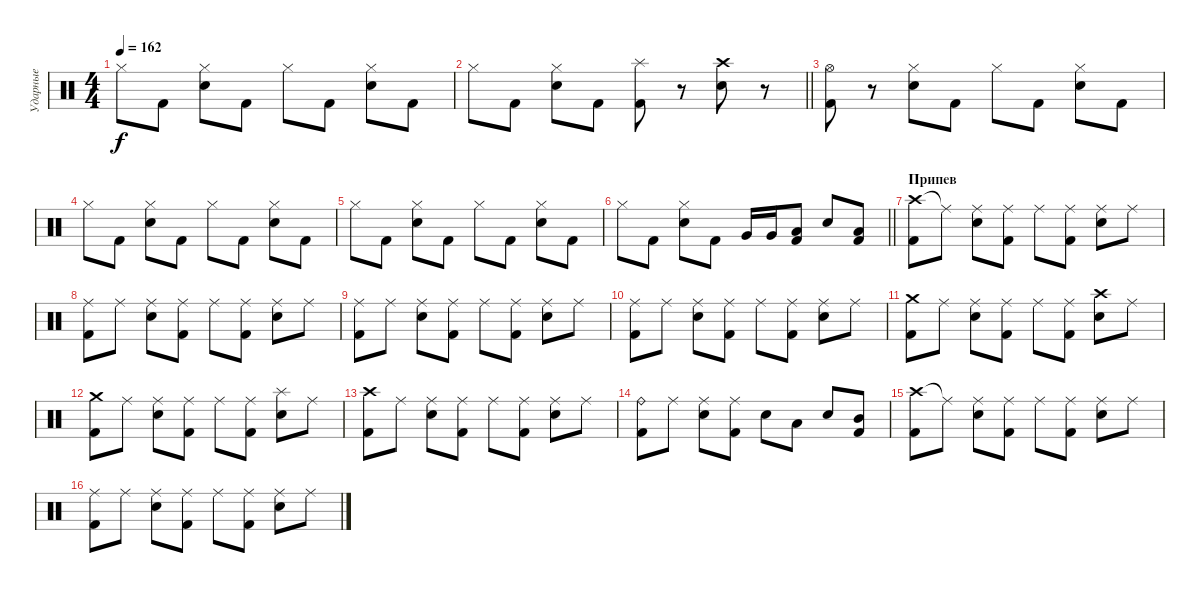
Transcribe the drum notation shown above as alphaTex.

\track ("Ударные" "Ударные") {instrument percussion}
\staff {score}
\articulation defaults
\ts (4 4)
\tempo 162
\clef neutral
\ks c "Hi-Hat (closed)".8{dy f} "Kick (hit) 2".8
("Hi-Hat (closed)" "Snare (hit) 2").8 "Kick (hit) 2".8 "Hi-Hat (closed)".8 "Kick (hit) 2".8 ("Hi-Hat (closed)" "Snare (hit) 2").8 "Kick (hit) 2".8 |
\barLineRight lightlight "Hi-Hat (closed)".8 "Kick (hit) 2".8
("Hi-Hat (closed)" "Snare (hit) 2").8 "Kick (hit) 2".8 ("Splash (hit)" "Kick (hit) 2").8 r.8 ("Crash high (hit)" "Snare (hit) 2").8 r.8 |
("Hi-Hat (open)" "Kick (hit) 2").8 r.8 ("Hi-Hat (closed)" "Snare (hit) 2").8 "Kick (hit) 2".8 "Hi-Hat (closed)".8 "Kick (hit) 2".8 ("Hi-Hat (closed)" "Snare (hit) 2").8 "Kick (hit) 2".8 |
"Hi-Hat (closed)".8 "Kick (hit) 2".8 ("Hi-Hat (closed)" "Snare (hit) 2").8 "Kick (hit) 2".8 "Hi-Hat (closed)".8 "Kick (hit) 2".8 ("Hi-Hat (closed)" "Snare (hit) 2").8 "Kick (hit) 2".8 |
"Hi-Hat (closed)".8 "Kick (hit) 2".8 ("Hi-Hat (closed)" "Snare (hit) 2").8 "Kick (hit) 2".8 "Hi-Hat (closed)".8 "Kick (hit) 2".8 ("Hi-Hat (closed)" "Snare (hit) 2").8 "Kick (hit) 2".8 |
\barLineRight lightlight "Hi-Hat (closed)".8 "Kick (hit) 2".8
("Hi-Hat (closed)" "Snare (hit) 2").8 "Kick (hit) 2".8 "Very Low Tom (hit)".16 "Very Low Tom (hit)".16 ("Low Tom (hit)" "Kick (hit) 2").8 "Snare (hit) 2".8 ("Low Tom (hit)" "Kick (hit) 2").8 |
\section ("" "Припев")
("Crash high (hit)" "Kick (hit) 2").8 "Ride (middle)"{t}.8 ("Ride (middle)" "Snare (hit) 2").8 ("Ride (middle)" "Kick (hit) 2").8 "Ride (middle)".8 ("Ride (middle)" "Kick (hit) 2").8 ("Ride (middle)" "Snare (hit) 2").8 "Ride (middle)".8 |
("Ride (middle)" "Kick (hit) 2").8 "Ride (middle)".8 ("Ride (middle)" "Snare (hit) 2").8 ("Ride (middle)" "Kick (hit) 2").8 "Ride (middle)".8 ("Ride (middle)" "Kick (hit) 2").8 ("Ride (middle)" "Snare (hit) 2").8 "Ride (middle)".8 |
("Ride (middle)" "Kick (hit) 2").8 "Ride (middle)".8 ("Ride (middle)" "Snare (hit) 2").8 ("Ride (middle)" "Kick (hit) 2").8 "Ride (middle)".8 ("Ride (middle)" "Kick (hit) 2").8 ("Ride (middle)" "Snare (hit) 2").8 "Ride (middle)".8 |
("Ride (middle)" "Kick (hit) 2").8 "Ride (middle)".8 ("Ride (middle)" "Snare (hit) 2").8 ("Ride (middle)" "Kick (hit) 2").8 "Ride (middle)".8 ("Ride (middle)" "Kick (hit) 2").8 ("Ride (middle)" "Snare (hit) 2").8 "Ride (middle)".8 |
("Crash medium (hit)" "Kick (hit) 2").8 "Ride (middle)".8 ("Ride (middle)" "Snare (hit) 2").8 ("Ride (middle)" "Kick (hit) 2").8 "Ride (middle)".8 ("Ride (middle)" "Kick (hit) 2").8 ("Crash high (hit)" "Snare (hit) 2").8 "Ride (middle)".8 |
("Crash medium (hit)" "Kick (hit) 2").8 "Ride (middle)".8 ("Ride (middle)" "Snare (hit) 2").8 ("Ride (middle)" "Kick (hit) 2").8 "Ride (middle)".8 ("Ride (middle)" "Kick (hit) 2").8 ("Splash (hit)" "Snare (hit) 2").8 "Ride (middle)".8 |
("Crash high (hit)" "Kick (hit) 2").8 "Ride (middle)".8 ("Ride (middle)" "Snare (hit) 2").8 ("Ride (middle)" "Kick (hit) 2").8 "Ride (middle)".8 ("Ride (middle)" "Kick (hit) 2").8 ("Ride (middle)" "Snare (hit) 2").8 "Ride (middle)".8 |
("Ride (bell)" "Kick (hit) 2").8 "Ride (middle)".8 ("Ride (middle)" "Snare (hit) 2").8 ("Ride (middle)" "Kick (hit) 2").8 "Snare (hit) 2".8 "Low Tom (hit)".8 "Snare (hit) 2".8 ("Mid Tom (hit)" "Kick (hit) 2").8 |
("Crash high (hit)" "Kick (hit) 2").8 "Ride (middle)"{t}.8 ("Ride (middle)" "Snare (hit) 2").8 ("Ride (middle)" "Kick (hit) 2").8 "Ride (middle)".8 ("Ride (middle)" "Kick (hit) 2").8 ("Ride (middle)" "Snare (hit) 2").8 "Ride (middle)".8 |
("Ride (middle)" "Kick (hit) 2").8 "Ride (middle)".8 ("Ride (middle)" "Snare (hit) 2").8 ("Ride (middle)" "Kick (hit) 2").8 "Ride (middle)".8 ("Ride (middle)" "Kick (hit) 2").8 ("Ride (middle)" "Snare (hit) 2").8 "Ride (middle)".8
